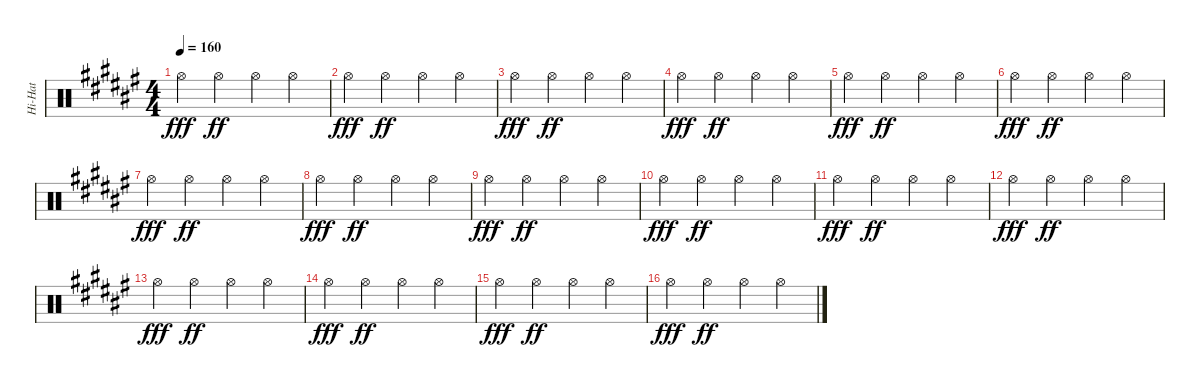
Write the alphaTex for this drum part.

\track ("Hi-Hat" "Hi-Hat") {instrument percussion}
\staff {score}
\articulation defaults
\ts (4 4)
\tempo 160
\clef neutral
\ks d#minor "Hi-Hat (open)".4{dy fff} "Hi-Hat (open)".4{dy ff} "Hi-Hat (open)".4 "Hi-Hat (open)".4
|
"Hi-Hat (open)".4{dy fff} "Hi-Hat (open)".4{dy ff} "Hi-Hat (open)".4 "Hi-Hat (open)".4 |
"Hi-Hat (open)".4{dy fff} "Hi-Hat (open)".4{dy ff} "Hi-Hat (open)".4 "Hi-Hat (open)".4 |
"Hi-Hat (open)".4{dy fff} "Hi-Hat (open)".4{dy ff} "Hi-Hat (open)".4 "Hi-Hat (open)".4 |
"Hi-Hat (open)".4{dy fff} "Hi-Hat (open)".4{dy ff} "Hi-Hat (open)".4 "Hi-Hat (open)".4 |
"Hi-Hat (open)".4{dy fff} "Hi-Hat (open)".4{dy ff} "Hi-Hat (open)".4 "Hi-Hat (open)".4 |
"Hi-Hat (open)".4{dy fff} "Hi-Hat (open)".4{dy ff} "Hi-Hat (open)".4 "Hi-Hat (open)".4 |
"Hi-Hat (open)".4{dy fff} "Hi-Hat (open)".4{dy ff} "Hi-Hat (open)".4 "Hi-Hat (open)".4 |
"Hi-Hat (open)".4{dy fff} "Hi-Hat (open)".4{dy ff} "Hi-Hat (open)".4 "Hi-Hat (open)".4 |
"Hi-Hat (open)".4{dy fff} "Hi-Hat (open)".4{dy ff} "Hi-Hat (open)".4 "Hi-Hat (open)".4 |
"Hi-Hat (open)".4{dy fff} "Hi-Hat (open)".4{dy ff} "Hi-Hat (open)".4 "Hi-Hat (open)".4 |
"Hi-Hat (open)".4{dy fff} "Hi-Hat (open)".4{dy ff} "Hi-Hat (open)".4 "Hi-Hat (open)".4 |
"Hi-Hat (open)".4{dy fff} "Hi-Hat (open)".4{dy ff} "Hi-Hat (open)".4 "Hi-Hat (open)".4 |
"Hi-Hat (open)".4{dy fff} "Hi-Hat (open)".4{dy ff} "Hi-Hat (open)".4 "Hi-Hat (open)".4 |
"Hi-Hat (open)".4{dy fff} "Hi-Hat (open)".4{dy ff} "Hi-Hat (open)".4 "Hi-Hat (open)".4 |
"Hi-Hat (open)".4{dy fff} "Hi-Hat (open)".4{dy ff} "Hi-Hat (open)".4 "Hi-Hat (open)".4
